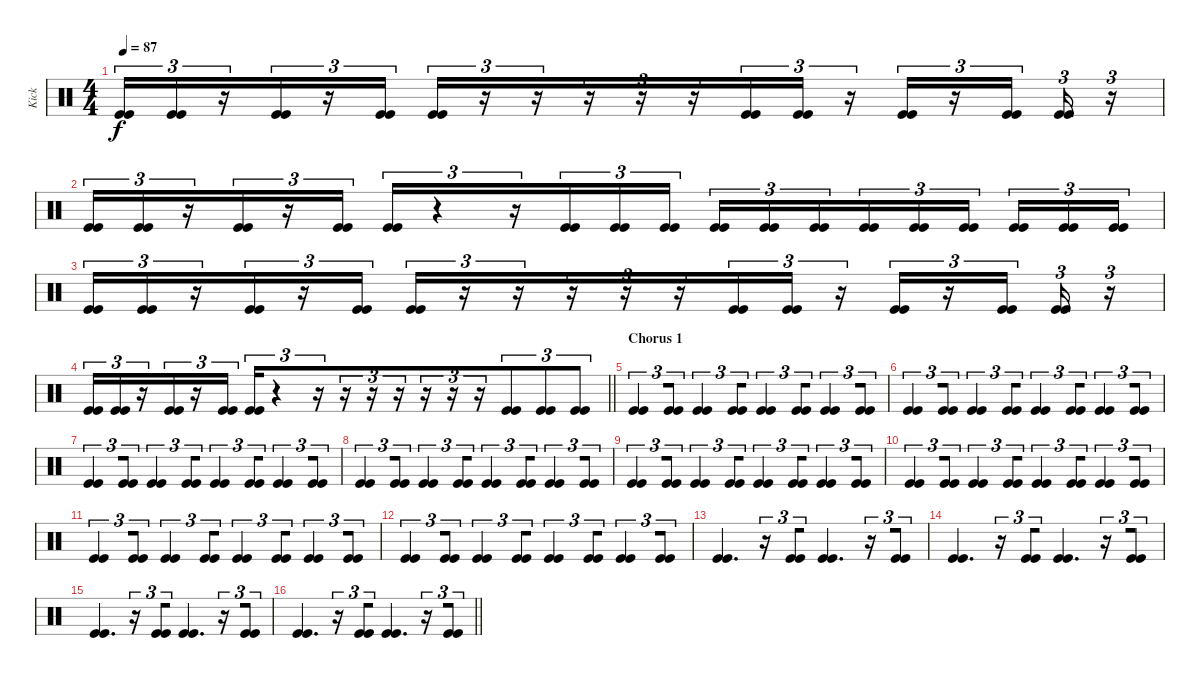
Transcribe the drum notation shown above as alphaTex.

\track ("Kick" "Kick") {instrument percussion bank 158}
\staff {score}
\articulation defaults
\ts (4 4)
\tempo 87
\clef neutral
\ks c
("Kick (hit)" "Kick (hit)").16{tu (3 2) dy f} ("Kick (hit)" "Kick (hit)").16{tu (3 2) beam merge} r.16{tu (3 2) beam merge} ("Kick (hit)" "Kick (hit)").16{tu (3 2)} r.16{tu (3 2) beam merge} ("Kick (hit)" "Kick (hit)").16{tu (3 2)} ("Kick (hit)" "Kick (hit)").16{tu (3 2) beam merge} r.16{tu (3 2)} r.16{tu (3 2) beam merge} r.16{tu (3 2)} r.16{tu (3 2)} r.16{tu (3 2) beam merge} ("Kick (hit)" "Kick (hit)").16{tu (3 2)} ("Kick (hit)" "Kick (hit)").16{tu (3 2)} r.16{tu (3 2) beam merge} ("Kick (hit)" "Kick (hit)").16{tu (3 2)} r.16{tu (3 2)} ("Kick (hit)" "Kick (hit)").16{tu (3 2)} ("Kick (hit)" "Kick (hit)").16{tu (3 2) beam merge} r.16{tu (3 2)} |
("Kick (hit)" "Kick (hit)").16{tu (3 2)} ("Kick (hit)" "Kick (hit)").16{tu (3 2) beam merge} r.16{tu (3 2) beam merge} ("Kick (hit)" "Kick (hit)").16{tu (3 2)} r.16{tu (3 2) beam merge} ("Kick (hit)" "Kick (hit)").16{tu (3 2)} ("Kick (hit)" "Kick (hit)").16{tu (3 2) beam merge} r.4{tu (3 2)} r.16{tu (3 2) beam merge} ("Kick (hit)" "Kick (hit)").16{tu (3 2)} ("Kick (hit)" "Kick (hit)").16{tu (3 2)} ("Kick (hit)" "Kick (hit)").16{tu (3 2) beam splitsecondary} ("Kick (hit)" "Kick (hit)").16{tu (3 2)} ("Kick (hit)" "Kick (hit)").16{tu (3 2)} ("Kick (hit)" "Kick (hit)").16{tu (3 2) beam merge} ("Kick (hit)" "Kick (hit)").16{tu (3 2)} ("Kick (hit)" "Kick (hit)").16{tu (3 2)} ("Kick (hit)" "Kick (hit)").16{tu (3 2) beam splitsecondary} ("Kick (hit)" "Kick (hit)").16{tu (3 2) beam merge} ("Kick (hit)" "Kick (hit)").16{tu (3 2)} ("Kick (hit)" "Kick (hit)").16{tu (3 2)} |
("Kick (hit)" "Kick (hit)").16{tu (3 2)} ("Kick (hit)" "Kick (hit)").16{tu (3 2) beam merge} r.16{tu (3 2) beam merge} ("Kick (hit)" "Kick (hit)").16{tu (3 2)} r.16{tu (3 2) beam merge} ("Kick (hit)" "Kick (hit)").16{tu (3 2)} ("Kick (hit)" "Kick (hit)").16{tu (3 2) beam merge} r.16{tu (3 2)} r.16{tu (3 2) beam merge} r.16{tu (3 2)} r.16{tu (3 2)} r.16{tu (3 2) beam merge} ("Kick (hit)" "Kick (hit)").16{tu (3 2)} ("Kick (hit)" "Kick (hit)").16{tu (3 2)} r.16{tu (3 2) beam merge} ("Kick (hit)" "Kick (hit)").16{tu (3 2)} r.16{tu (3 2)} ("Kick (hit)" "Kick (hit)").16{tu (3 2)} ("Kick (hit)" "Kick (hit)").16{tu (3 2) beam merge} r.16{tu (3 2)} |
\barLineRight lightlight
("Kick (hit)" "Kick (hit)").16{tu (3 2)} ("Kick (hit)" "Kick (hit)").16{tu (3 2) beam merge} r.16{tu (3 2) beam merge} ("Kick (hit)" "Kick (hit)").16{tu (3 2)} r.16{tu (3 2) beam merge} ("Kick (hit)" "Kick (hit)").16{tu (3 2)} ("Kick (hit)" "Kick (hit)").16{tu (3 2) beam merge} r.4{tu (3 2)} r.16{tu (3 2) beam merge} r.16{tu (3 2)} r.16{tu (3 2)} r.16{tu (3 2) beam merge} r.16{tu (3 2)} r.16{tu (3 2)} r.16{tu (3 2)} ("Kick (hit)" "Kick (hit)").8{tu (3 2) beam merge} ("Kick (hit)" "Kick (hit)").8{tu (3 2)} ("Kick (hit)" "Kick (hit)").8{tu (3 2)} |
\section ("" "Chorus 1")
("Kick (hit)" "Kick (hit)").4{tu (3 2) beam merge} ("Kick (hit)" "Kick (hit)").8{tu (3 2)} ("Kick (hit)" "Kick (hit)").4{tu (3 2)} ("Kick (hit)" "Kick (hit)").8{tu (3 2) beam merge} ("Kick (hit)" "Kick (hit)").4{tu (3 2)} ("Kick (hit)" "Kick (hit)").8{tu (3 2) beam merge} ("Kick (hit)" "Kick (hit)").4{tu (3 2) beam merge} ("Kick (hit)" "Kick (hit)").8{tu (3 2)} |
("Kick (hit)" "Kick (hit)").4{tu (3 2) beam merge} ("Kick (hit)" "Kick (hit)").8{tu (3 2)} ("Kick (hit)" "Kick (hit)").4{tu (3 2)} ("Kick (hit)" "Kick (hit)").8{tu (3 2) beam merge} ("Kick (hit)" "Kick (hit)").4{tu (3 2)} ("Kick (hit)" "Kick (hit)").8{tu (3 2) beam merge} ("Kick (hit)" "Kick (hit)").4{tu (3 2) beam merge} ("Kick (hit)" "Kick (hit)").8{tu (3 2)} |
("Kick (hit)" "Kick (hit)").4{tu (3 2) beam merge} ("Kick (hit)" "Kick (hit)").8{tu (3 2)} ("Kick (hit)" "Kick (hit)").4{tu (3 2)} ("Kick (hit)" "Kick (hit)").8{tu (3 2) beam merge} ("Kick (hit)" "Kick (hit)").4{tu (3 2)} ("Kick (hit)" "Kick (hit)").8{tu (3 2) beam merge} ("Kick (hit)" "Kick (hit)").4{tu (3 2) beam merge} ("Kick (hit)" "Kick (hit)").8{tu (3 2)} |
("Kick (hit)" "Kick (hit)").4{tu (3 2) beam merge} ("Kick (hit)" "Kick (hit)").8{tu (3 2)} ("Kick (hit)" "Kick (hit)").4{tu (3 2)} ("Kick (hit)" "Kick (hit)").8{tu (3 2) beam merge} ("Kick (hit)" "Kick (hit)").4{tu (3 2)} ("Kick (hit)" "Kick (hit)").8{tu (3 2) beam merge} ("Kick (hit)" "Kick (hit)").4{tu (3 2) beam merge} ("Kick (hit)" "Kick (hit)").8{tu (3 2)} |
("Kick (hit)" "Kick (hit)").4{tu (3 2) beam merge} ("Kick (hit)" "Kick (hit)").8{tu (3 2)} ("Kick (hit)" "Kick (hit)").4{tu (3 2)} ("Kick (hit)" "Kick (hit)").8{tu (3 2) beam merge} ("Kick (hit)" "Kick (hit)").4{tu (3 2)} ("Kick (hit)" "Kick (hit)").8{tu (3 2) beam merge} ("Kick (hit)" "Kick (hit)").4{tu (3 2) beam merge} ("Kick (hit)" "Kick (hit)").8{tu (3 2)} |
("Kick (hit)" "Kick (hit)").4{tu (3 2) beam merge} ("Kick (hit)" "Kick (hit)").8{tu (3 2)} ("Kick (hit)" "Kick (hit)").4{tu (3 2)} ("Kick (hit)" "Kick (hit)").8{tu (3 2) beam merge} ("Kick (hit)" "Kick (hit)").4{tu (3 2)} ("Kick (hit)" "Kick (hit)").8{tu (3 2) beam merge} ("Kick (hit)" "Kick (hit)").4{tu (3 2) beam merge} ("Kick (hit)" "Kick (hit)").8{tu (3 2)} |
("Kick (hit)" "Kick (hit)").4{tu (3 2) beam merge} ("Kick (hit)" "Kick (hit)").8{tu (3 2)} ("Kick (hit)" "Kick (hit)").4{tu (3 2)} ("Kick (hit)" "Kick (hit)").8{tu (3 2) beam merge} ("Kick (hit)" "Kick (hit)").4{tu (3 2)} ("Kick (hit)" "Kick (hit)").8{tu (3 2) beam merge} ("Kick (hit)" "Kick (hit)").4{tu (3 2) beam merge} ("Kick (hit)" "Kick (hit)").8{tu (3 2)} |
("Kick (hit)" "Kick (hit)").4{tu (3 2) beam merge} ("Kick (hit)" "Kick (hit)").8{tu (3 2)} ("Kick (hit)" "Kick (hit)").4{tu (3 2)} ("Kick (hit)" "Kick (hit)").8{tu (3 2) beam merge} ("Kick (hit)" "Kick (hit)").4{tu (3 2)} ("Kick (hit)" "Kick (hit)").8{tu (3 2) beam merge} ("Kick (hit)" "Kick (hit)").4{tu (3 2) beam merge} ("Kick (hit)" "Kick (hit)").8{tu (3 2)} |
("Kick (hit)" "Kick (hit)").4{d beam merge} r.16{tu (3 2)} ("Kick (hit)" "Kick (hit)").8{tu (3 2) beam merge} ("Kick (hit)" "Kick (hit)").4{d beam merge} r.16{tu (3 2)} ("Kick (hit)" "Kick (hit)").8{tu (3 2)} |
("Kick (hit)" "Kick (hit)").4{d beam merge} r.16{tu (3 2)} ("Kick (hit)" "Kick (hit)").8{tu (3 2) beam merge} ("Kick (hit)" "Kick (hit)").4{d beam merge} r.16{tu (3 2)} ("Kick (hit)" "Kick (hit)").8{tu (3 2)} |
("Kick (hit)" "Kick (hit)").4{d beam merge} r.16{tu (3 2)} ("Kick (hit)" "Kick (hit)").8{tu (3 2) beam merge} ("Kick (hit)" "Kick (hit)").4{d beam merge} r.16{tu (3 2)} ("Kick (hit)" "Kick (hit)").8{tu (3 2)} |
\barLineRight lightlight
("Kick (hit)" "Kick (hit)").4{d beam merge} r.16{tu (3 2)} ("Kick (hit)" "Kick (hit)").8{tu (3 2) beam merge} ("Kick (hit)" "Kick (hit)").4{d beam merge} r.16{tu (3 2)} ("Kick (hit)" "Kick (hit)").8{tu (3 2)}
